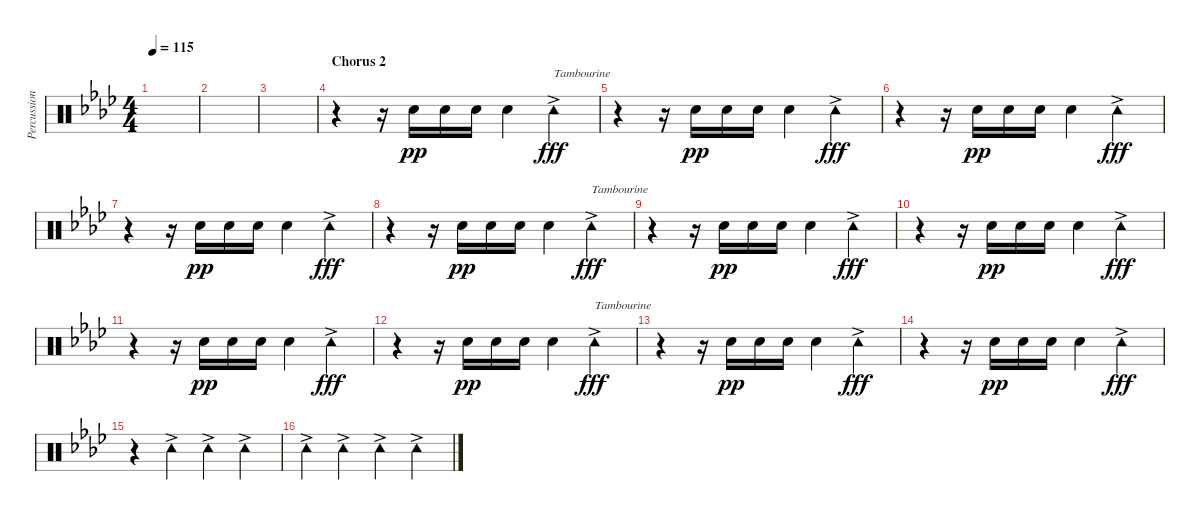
\track ("Percussion" "Percussion") {instrument percussion}
\staff {score}
\articulation defaults
\ts (4 4)
\tempo 115
\clef neutral
\ks ab
|
|
|
\section ("" "Chorus 2")
r.4 r.16 "Snare (hit) 2".16{dy pp} "Snare (hit) 2".16 "Snare (hit) 2".16 "Snare (hit) 2".4 "Tambourine (hit)"{ac}.4{txt "Tambourine" dy fff} |
r.4 r.16 "Snare (hit) 2".16{dy pp} "Snare (hit) 2".16 "Snare (hit) 2".16 "Snare (hit) 2".4 "Tambourine (hit)"{ac}.4{dy fff} |
r.4 r.16 "Snare (hit) 2".16{dy pp} "Snare (hit) 2".16 "Snare (hit) 2".16 "Snare (hit) 2".4 "Tambourine (hit)"{ac}.4{dy fff} |
r.4 r.16 "Snare (hit) 2".16{dy pp} "Snare (hit) 2".16 "Snare (hit) 2".16 "Snare (hit) 2".4 "Tambourine (hit)"{ac}.4{dy fff} |
r.4 r.16 "Snare (hit) 2".16{dy pp} "Snare (hit) 2".16 "Snare (hit) 2".16 "Snare (hit) 2".4 "Tambourine (hit)"{ac}.4{txt "Tambourine" dy fff} |
r.4 r.16 "Snare (hit) 2".16{dy pp} "Snare (hit) 2".16 "Snare (hit) 2".16 "Snare (hit) 2".4 "Tambourine (hit)"{ac}.4{dy fff} |
r.4 r.16 "Snare (hit) 2".16{dy pp} "Snare (hit) 2".16 "Snare (hit) 2".16 "Snare (hit) 2".4 "Tambourine (hit)"{ac}.4{dy fff} |
r.4 r.16 "Snare (hit) 2".16{dy pp} "Snare (hit) 2".16 "Snare (hit) 2".16 "Snare (hit) 2".4 "Tambourine (hit)"{ac}.4{dy fff} |
r.4 r.16 "Snare (hit) 2".16{dy pp} "Snare (hit) 2".16 "Snare (hit) 2".16 "Snare (hit) 2".4 "Tambourine (hit)"{ac}.4{txt "Tambourine" dy fff} |
r.4 r.16 "Snare (hit) 2".16{dy pp} "Snare (hit) 2".16 "Snare (hit) 2".16 "Snare (hit) 2".4 "Tambourine (hit)"{ac}.4{dy fff} |
r.4 r.16 "Snare (hit) 2".16{dy pp} "Snare (hit) 2".16 "Snare (hit) 2".16 "Snare (hit) 2".4 "Tambourine (hit)"{ac}.4{dy fff} |
r.4 "Tambourine (hit)"{ac}.4 "Tambourine (hit)"{ac}.4 "Tambourine (hit)"{ac}.4 |
"Tambourine (hit)"{ac}.4 "Tambourine (hit)"{ac}.4 "Tambourine (hit)"{ac}.4 "Tambourine (hit)"{ac}.4
